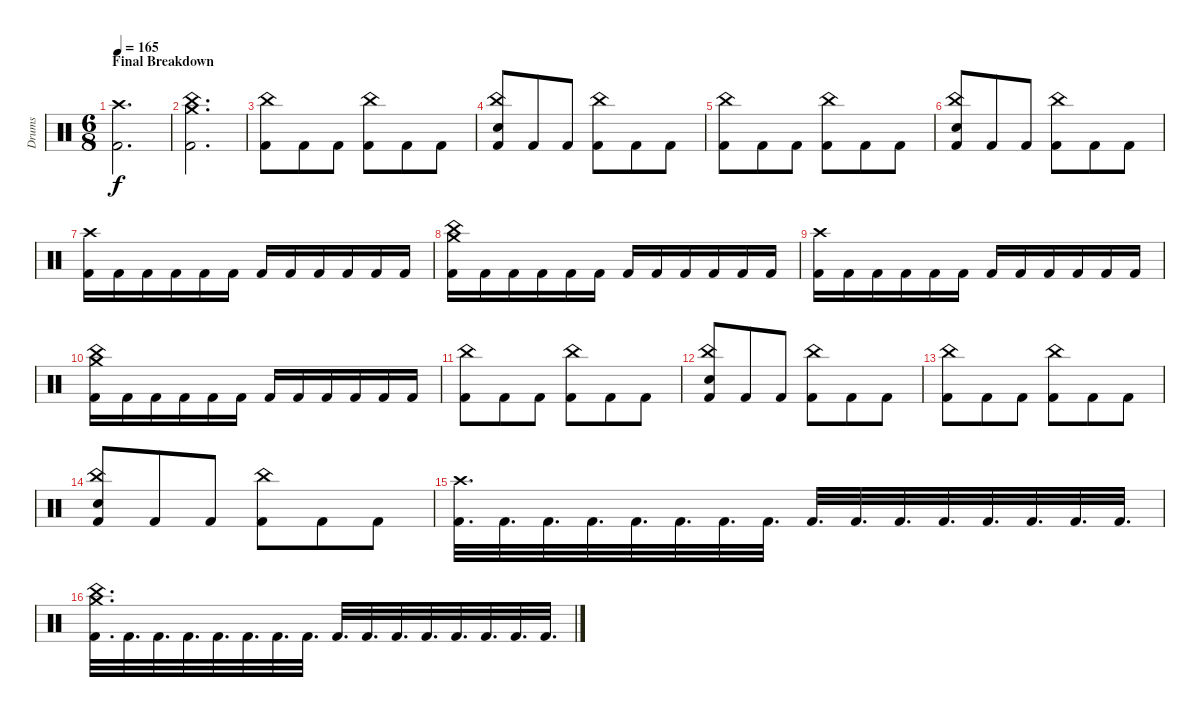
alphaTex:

\track ("Drums" "Drums") {instrument percussion}
\staff {score}
\articulation defaults
\ts (6 8)
\section ("" "Final Breakdown")
\tempo 165
\clef neutral
\ks c
("Crash high (hit)" "Kick (hit) 2").2{d dy f} |
("China (hit)" "Crash medium (hit)" "Kick (hit) 2").2{d} |
("China (hit)" "Kick (hit) 2").8 "Kick (hit) 2".8 "Kick (hit) 2".8 ("China (hit)" "Kick (hit) 2").8 "Kick (hit) 2".8 "Kick (hit) 2".8 |
("China (hit)" "Electric Snare (hit)" "Kick (hit) 2").8 "Kick (hit) 2".8 "Kick (hit) 2".8 ("China (hit)" "Kick (hit) 2").8 "Kick (hit) 2".8 "Kick (hit) 2".8 |
("China (hit)" "Kick (hit) 2").8 "Kick (hit) 2".8 "Kick (hit) 2".8 ("China (hit)" "Kick (hit) 2").8 "Kick (hit) 2".8 "Kick (hit) 2".8 |
("China (hit)" "Electric Snare (hit)" "Kick (hit) 2").8 "Kick (hit) 2".8 "Kick (hit) 2".8 ("China (hit)" "Kick (hit) 2").8 "Kick (hit) 2".8 "Kick (hit) 2".8 |
("Crash high (hit)" "Kick (hit) 2").16 "Kick (hit) 2".16 "Kick (hit) 2".16 "Kick (hit) 2".16 "Kick (hit) 2".16 "Kick (hit) 2".16 "Kick (hit) 2".16 "Kick (hit) 2".16 "Kick (hit) 2".16 "Kick (hit) 2".16 "Kick (hit) 2".16 "Kick (hit) 2".16 |
("China (hit)" "Crash medium (hit)" "Kick (hit) 2").16 "Kick (hit) 2".16 "Kick (hit) 2".16 "Kick (hit) 2".16 "Kick (hit) 2".16 "Kick (hit) 2".16 "Kick (hit) 2".16 "Kick (hit) 2".16 "Kick (hit) 2".16 "Kick (hit) 2".16 "Kick (hit) 2".16 "Kick (hit) 2".16 |
("Crash high (hit)" "Kick (hit) 2").16 "Kick (hit) 2".16 "Kick (hit) 2".16 "Kick (hit) 2".16 "Kick (hit) 2".16 "Kick (hit) 2".16 "Kick (hit) 2".16 "Kick (hit) 2".16 "Kick (hit) 2".16 "Kick (hit) 2".16 "Kick (hit) 2".16 "Kick (hit) 2".16 |
("China (hit)" "Crash medium (hit)" "Kick (hit) 2").16 "Kick (hit) 2".16 "Kick (hit) 2".16 "Kick (hit) 2".16 "Kick (hit) 2".16 "Kick (hit) 2".16 "Kick (hit) 2".16 "Kick (hit) 2".16 "Kick (hit) 2".16 "Kick (hit) 2".16 "Kick (hit) 2".16 "Kick (hit) 2".16 |
("China (hit)" "Kick (hit) 2").8 "Kick (hit) 2".8 "Kick (hit) 2".8 ("China (hit)" "Kick (hit) 2").8 "Kick (hit) 2".8 "Kick (hit) 2".8 |
("China (hit)" "Electric Snare (hit)" "Kick (hit) 2").8 "Kick (hit) 2".8 "Kick (hit) 2".8 ("China (hit)" "Kick (hit) 2").8 "Kick (hit) 2".8 "Kick (hit) 2".8 |
("China (hit)" "Kick (hit) 2").8 "Kick (hit) 2".8 "Kick (hit) 2".8 ("China (hit)" "Kick (hit) 2").8 "Kick (hit) 2".8 "Kick (hit) 2".8 |
("China (hit)" "Electric Snare (hit)" "Kick (hit) 2").8 "Kick (hit) 2".8 "Kick (hit) 2".8 ("China (hit)" "Kick (hit) 2").8 "Kick (hit) 2".8 "Kick (hit) 2".8 |
("Crash high (hit)" "Kick (hit) 2").32{d} "Kick (hit) 2".32{d} "Kick (hit) 2".32{d} "Kick (hit) 2".32{d} "Kick (hit) 2".32{d} "Kick (hit) 2".32{d} "Kick (hit) 2".32{d} "Kick (hit) 2".32{d} "Kick (hit) 2".32{d} "Kick (hit) 2".32{d} "Kick (hit) 2".32{d} "Kick (hit) 2".32{d} "Kick (hit) 2".32{d} "Kick (hit) 2".32{d} "Kick (hit) 2".32{d} "Kick (hit) 2".32{d} |
("China (hit)" "Crash medium (hit)" "Kick (hit) 2").32{d} "Kick (hit) 2".32{d} "Kick (hit) 2".32{d} "Kick (hit) 2".32{d} "Kick (hit) 2".32{d} "Kick (hit) 2".32{d} "Kick (hit) 2".32{d} "Kick (hit) 2".32{d} "Kick (hit) 2".32{d} "Kick (hit) 2".32{d} "Kick (hit) 2".32{d} "Kick (hit) 2".32{d} "Kick (hit) 2".32{d} "Kick (hit) 2".32{d} "Kick (hit) 2".32{d} "Kick (hit) 2".32{d}
